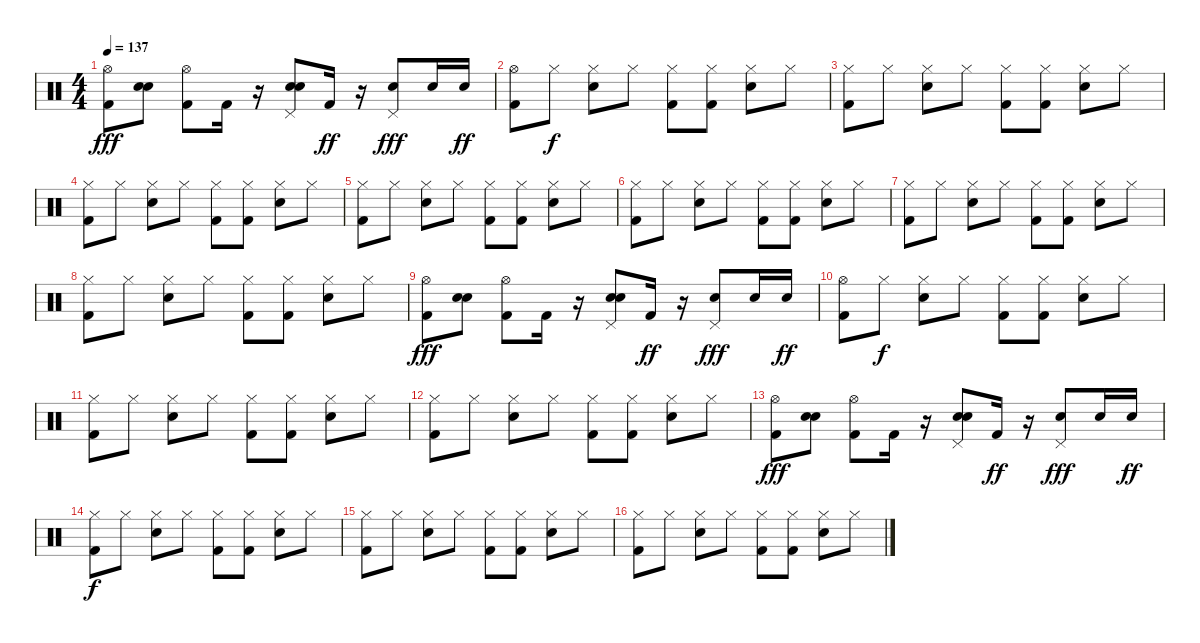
\track "" {instrument percussion}
\staff {score}
\articulation defaults
\ts (4 4)
\tempo 137
\clef neutral
\ks c
("Hi-Hat (open)" "Kick (hit) 2").8{dy fff} ("Electric Snare (hit)" "Electric Snare (hit)").8 ("Hi-Hat (open)" "Kick (hit) 2").8 "Kick (hit) 2".16 r.16 ("Electric Snare (hit)" "Pedal Hi-Hat (hit)" "Electric Snare (hit)").8 "Kick (hit) 2".16{dy ff} r.16 ("Pedal Hi-Hat (hit)" "Electric Snare (hit)").8{dy fff} "Electric Snare (hit)".16 "Electric Snare (hit)".16{dy ff} |
("Kick (hit) 2" "Hi-Hat (open)").8 "Hi-Hat (closed)".8{dy f} ("Hi-Hat (closed)" "Electric Snare (hit)").8 "Hi-Hat (closed)".8 ("Kick (hit) 2" "Hi-Hat (closed)").8 ("Kick (hit) 2" "Hi-Hat (closed)").8 ("Electric Snare (hit)" "Hi-Hat (closed)").8 "Hi-Hat (closed)".8 |
("Kick (hit) 2" "Hi-Hat (closed)").8 "Hi-Hat (closed)".8 ("Hi-Hat (closed)" "Electric Snare (hit)").8 "Hi-Hat (closed)".8 ("Kick (hit) 2" "Hi-Hat (closed)").8 ("Kick (hit) 2" "Hi-Hat (closed)").8 ("Electric Snare (hit)" "Hi-Hat (closed)").8 "Hi-Hat (closed)".8 |
("Kick (hit) 2" "Hi-Hat (closed)").8 "Hi-Hat (closed)".8 ("Hi-Hat (closed)" "Electric Snare (hit)").8 "Hi-Hat (closed)".8 ("Kick (hit) 2" "Hi-Hat (closed)").8 ("Kick (hit) 2" "Hi-Hat (closed)").8 ("Electric Snare (hit)" "Hi-Hat (closed)").8 "Hi-Hat (closed)".8 |
("Kick (hit) 2" "Hi-Hat (closed)").8 "Hi-Hat (closed)".8 ("Hi-Hat (closed)" "Electric Snare (hit)").8 "Hi-Hat (closed)".8 ("Kick (hit) 2" "Hi-Hat (closed)").8 ("Kick (hit) 2" "Hi-Hat (closed)").8 ("Electric Snare (hit)" "Hi-Hat (closed)").8 "Hi-Hat (closed)".8 |
("Kick (hit) 2" "Hi-Hat (closed)").8 "Hi-Hat (closed)".8 ("Hi-Hat (closed)" "Electric Snare (hit)").8 "Hi-Hat (closed)".8 ("Kick (hit) 2" "Hi-Hat (closed)").8 ("Kick (hit) 2" "Hi-Hat (closed)").8 ("Electric Snare (hit)" "Hi-Hat (closed)").8 "Hi-Hat (closed)".8 |
("Kick (hit) 2" "Hi-Hat (closed)").8 "Hi-Hat (closed)".8 ("Hi-Hat (closed)" "Electric Snare (hit)").8 "Hi-Hat (closed)".8 ("Kick (hit) 2" "Hi-Hat (closed)").8 ("Kick (hit) 2" "Hi-Hat (closed)").8 ("Electric Snare (hit)" "Hi-Hat (closed)").8 "Hi-Hat (closed)".8 |
("Kick (hit) 2" "Hi-Hat (closed)").8 "Hi-Hat (closed)".8 ("Hi-Hat (closed)" "Electric Snare (hit)").8 "Hi-Hat (closed)".8 ("Kick (hit) 2" "Hi-Hat (closed)").8 ("Kick (hit) 2" "Hi-Hat (closed)").8 ("Electric Snare (hit)" "Hi-Hat (closed)").8 "Hi-Hat (closed)".8 |
("Hi-Hat (open)" "Kick (hit) 2").8{dy fff} ("Electric Snare (hit)" "Electric Snare (hit)").8 ("Hi-Hat (open)" "Kick (hit) 2").8 "Kick (hit) 2".16 r.16 ("Electric Snare (hit)" "Pedal Hi-Hat (hit)" "Electric Snare (hit)").8 "Kick (hit) 2".16{dy ff} r.16 ("Pedal Hi-Hat (hit)" "Electric Snare (hit)").8{dy fff} "Electric Snare (hit)".16 "Electric Snare (hit)".16{dy ff} |
("Kick (hit) 2" "Hi-Hat (open)").8 "Hi-Hat (closed)".8{dy f} ("Hi-Hat (closed)" "Electric Snare (hit)").8 "Hi-Hat (closed)".8 ("Kick (hit) 2" "Hi-Hat (closed)").8 ("Kick (hit) 2" "Hi-Hat (closed)").8 ("Electric Snare (hit)" "Hi-Hat (closed)").8 "Hi-Hat (closed)".8 |
("Kick (hit) 2" "Hi-Hat (closed)").8 "Hi-Hat (closed)".8 ("Hi-Hat (closed)" "Electric Snare (hit)").8 "Hi-Hat (closed)".8 ("Kick (hit) 2" "Hi-Hat (closed)").8 ("Kick (hit) 2" "Hi-Hat (closed)").8 ("Electric Snare (hit)" "Hi-Hat (closed)").8 "Hi-Hat (closed)".8 |
("Kick (hit) 2" "Hi-Hat (closed)").8 "Hi-Hat (closed)".8 ("Hi-Hat (closed)" "Electric Snare (hit)").8 "Hi-Hat (closed)".8 ("Kick (hit) 2" "Hi-Hat (closed)").8 ("Kick (hit) 2" "Hi-Hat (closed)").8 ("Electric Snare (hit)" "Hi-Hat (closed)").8 "Hi-Hat (closed)".8 |
("Hi-Hat (open)" "Kick (hit) 2").8{dy fff} ("Electric Snare (hit)" "Electric Snare (hit)").8 ("Hi-Hat (open)" "Kick (hit) 2").8 "Kick (hit) 2".16 r.16 ("Electric Snare (hit)" "Pedal Hi-Hat (hit)" "Electric Snare (hit)").8 "Kick (hit) 2".16{dy ff} r.16 ("Pedal Hi-Hat (hit)" "Electric Snare (hit)").8{dy fff} "Electric Snare (hit)".16 "Electric Snare (hit)".16{dy ff} |
("Kick (hit) 2" "Hi-Hat (closed)").8{dy f} "Hi-Hat (closed)".8 ("Hi-Hat (closed)" "Electric Snare (hit)").8 "Hi-Hat (closed)".8 ("Kick (hit) 2" "Hi-Hat (closed)").8 ("Kick (hit) 2" "Hi-Hat (closed)").8 ("Electric Snare (hit)" "Hi-Hat (closed)").8 "Hi-Hat (closed)".8 |
("Kick (hit) 2" "Hi-Hat (closed)").8 "Hi-Hat (closed)".8 ("Hi-Hat (closed)" "Electric Snare (hit)").8 "Hi-Hat (closed)".8 ("Kick (hit) 2" "Hi-Hat (closed)").8 ("Kick (hit) 2" "Hi-Hat (closed)").8 ("Electric Snare (hit)" "Hi-Hat (closed)").8 "Hi-Hat (closed)".8 |
("Kick (hit) 2" "Hi-Hat (closed)").8 "Hi-Hat (closed)".8 ("Hi-Hat (closed)" "Electric Snare (hit)").8 "Hi-Hat (closed)".8 ("Kick (hit) 2" "Hi-Hat (closed)").8 ("Kick (hit) 2" "Hi-Hat (closed)").8 ("Electric Snare (hit)" "Hi-Hat (closed)").8 "Hi-Hat (closed)".8
